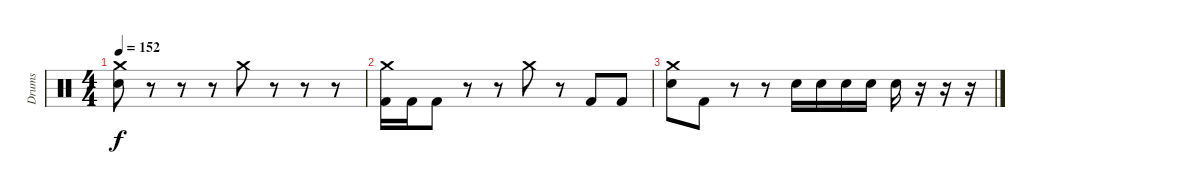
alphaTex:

\track ("Drums" "Drums") {instrument percussion}
\staff {score}
\articulation defaults
\ts (4 4)
\tempo 152
\clef neutral
\ks c
("Crash medium (hit)" "Electric Snare (hit)").8{dy f} r.8 r.8 r.8 "Crash medium (hit)".8 r.8 r.8 r.8 |
("Crash medium (hit)" "Kick (hit) 2").16 "Kick (hit) 2".16 "Kick (hit) 2".8 r.8 r.8 "Crash medium (hit)".8 r.8 "Kick (hit) 2".8 "Kick (hit) 2".8 |
("Crash medium (hit)" "Electric Snare (hit)").8 "Kick (hit) 2".8 r.8 r.8 "Electric Snare (hit)".16 "Electric Snare (hit)".16 "Electric Snare (hit)".16 "Electric Snare (hit)".16 "Electric Snare (hit)".16 r.16 r.16 r.16
